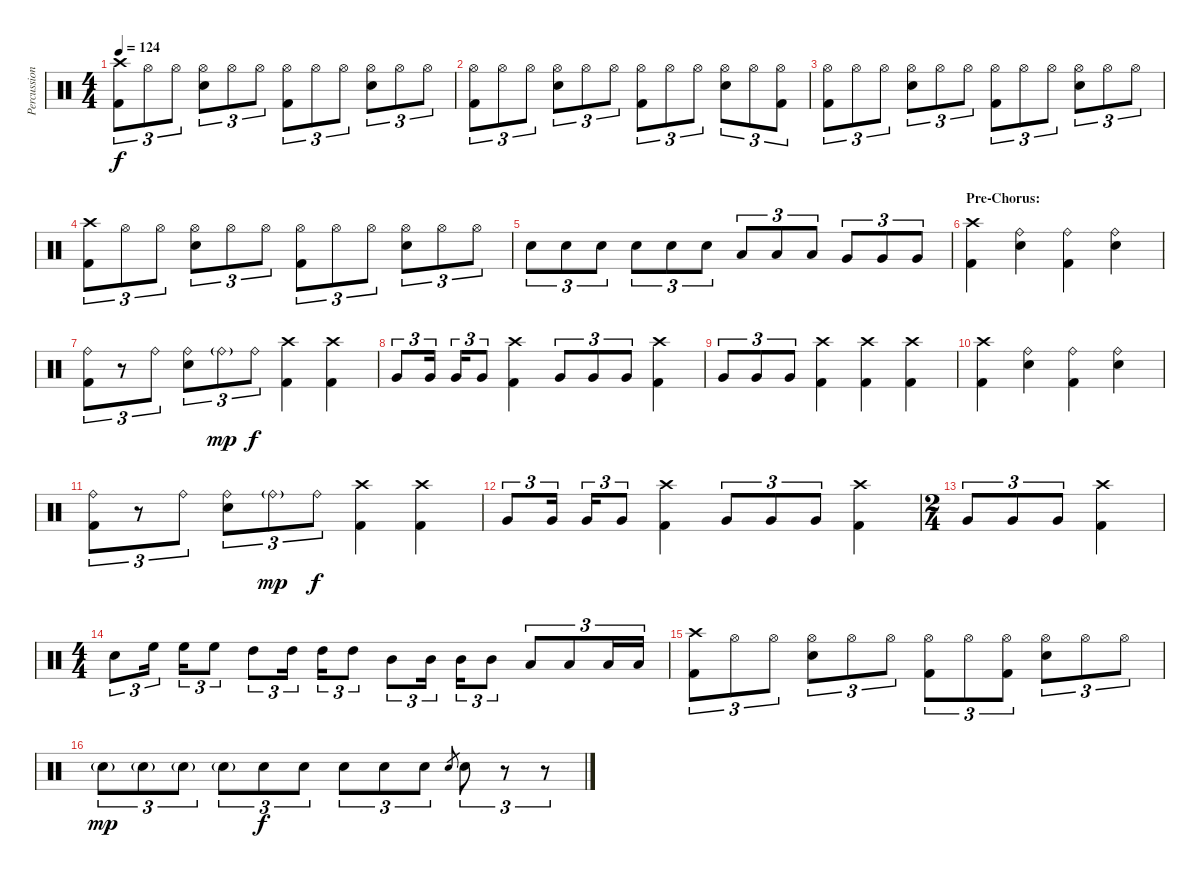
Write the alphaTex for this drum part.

\track ("Percussion" "Percussion") {instrument percussion}
\staff {score}
\articulation defaults
\ts (4 4)
\tempo 124
\clef neutral
\ks c
("Crash high (hit)" "Kick (hit) 2").8{tu (3 2) dy f} "Hi-Hat (open)".8{tu (3 2)} "Hi-Hat (open)".8{tu (3 2)} ("Hi-Hat (open)" "Snare (hit) 2").8{tu (3 2)} "Hi-Hat (open)".8{tu (3 2)} "Hi-Hat (open)".8{tu (3 2)} ("Hi-Hat (open)" "Kick (hit) 2").8{tu (3 2)} "Hi-Hat (open)".8{tu (3 2)} "Hi-Hat (open)".8{tu (3 2)} ("Hi-Hat (open)" "Snare (hit) 2").8{tu (3 2)} "Hi-Hat (open)".8{tu (3 2)} "Hi-Hat (open)".8{tu (3 2)} |
("Hi-Hat (open)" "Kick (hit) 2").8{tu (3 2)} "Hi-Hat (open)".8{tu (3 2)} "Hi-Hat (open)".8{tu (3 2)} ("Hi-Hat (open)" "Snare (hit) 2").8{tu (3 2)} "Hi-Hat (open)".8{tu (3 2)} "Hi-Hat (open)".8{tu (3 2)} ("Hi-Hat (open)" "Kick (hit) 2").8{tu (3 2)} "Hi-Hat (open)".8{tu (3 2)} "Hi-Hat (open)".8{tu (3 2)} ("Hi-Hat (open)" "Snare (hit) 2").8{tu (3 2)} "Hi-Hat (open)".8{tu (3 2)} ("Hi-Hat (open)" "Kick (hit) 2").8{tu (3 2)} |
("Hi-Hat (open)" "Kick (hit) 2").8{tu (3 2)} "Hi-Hat (open)".8{tu (3 2)} "Hi-Hat (open)".8{tu (3 2)} ("Hi-Hat (open)" "Snare (hit) 2").8{tu (3 2)} "Hi-Hat (open)".8{tu (3 2)} "Hi-Hat (open)".8{tu (3 2)} ("Hi-Hat (open)" "Kick (hit) 2").8{tu (3 2)} "Hi-Hat (open)".8{tu (3 2)} "Hi-Hat (open)".8{tu (3 2)} ("Hi-Hat (open)" "Snare (hit) 2").8{tu (3 2)} "Hi-Hat (open)".8{tu (3 2)} "Hi-Hat (open)".8{tu (3 2)} |
("Crash high (hit)" "Kick (hit) 2").8{tu (3 2)} "Hi-Hat (open)".8{tu (3 2)} "Hi-Hat (open)".8{tu (3 2)} ("Hi-Hat (open)" "Snare (hit) 2").8{tu (3 2)} "Hi-Hat (open)".8{tu (3 2)} "Hi-Hat (open)".8{tu (3 2)} ("Hi-Hat (open)" "Kick (hit) 2").8{tu (3 2)} "Hi-Hat (open)".8{tu (3 2)} "Hi-Hat (open)".8{tu (3 2)} ("Hi-Hat (open)" "Snare (hit) 2").8{tu (3 2)} "Hi-Hat (open)".8{tu (3 2)} "Hi-Hat (open)".8{tu (3 2)} |
"Snare (hit) 2".8{tu (3 2)} "Snare (hit) 2".8{tu (3 2)} "Snare (hit) 2".8{tu (3 2)} "Snare (hit) 2".8{tu (3 2)} "Snare (hit) 2".8{tu (3 2)} "Snare (hit) 2".8{tu (3 2)} "Low Tom (hit)".8{tu (3 2)} "Low Tom (hit)".8{tu (3 2)} "Low Tom (hit)".8{tu (3 2)} "Very Low Tom (hit)".8{tu (3 2)} "Very Low Tom (hit)".8{tu (3 2)} "Very Low Tom (hit)".8{tu (3 2)} |
\section ("" "Pre-Chorus:")
("Crash high (hit)" "Kick (hit) 2").4 ("Ride (bell)" "Snare (hit) 2").4 ("Ride (bell)" "Kick (hit) 2").4 ("Ride (bell)" "Snare (hit) 2").4 |
("Ride (bell)" "Kick (hit) 2").8{tu (3 2)} r.8{tu (3 2)} "Ride (bell)".8{tu (3 2)} ("Ride (bell)" "Snare (hit) 2").8{tu (3 2)} "Ride (bell)"{g}.8{tu (3 2) dy mp} "Ride (bell)".8{tu (3 2) dy f} ("Crash high (hit)" "Kick (hit) 2").4 ("Crash high (hit)" "Kick (hit) 2").4 |
"Very Low Tom (hit)".8{tu (3 2)} "Very Low Tom (hit)".16{tu (3 2)} "Very Low Tom (hit)".16{tu (3 2)} "Very Low Tom (hit)".8{tu (3 2)} ("Crash high (hit)" "Kick (hit) 2").4 "Very Low Tom (hit)".8{tu (3 2)} "Very Low Tom (hit)".8{tu (3 2)} "Very Low Tom (hit)".8{tu (3 2)} ("Crash high (hit)" "Kick (hit) 2").4 |
"Very Low Tom (hit)".8{tu (3 2)} "Very Low Tom (hit)".8{tu (3 2)} "Very Low Tom (hit)".8{tu (3 2)} ("Crash high (hit)" "Kick (hit) 2").4 ("Crash high (hit)" "Kick (hit) 2").4 ("Crash high (hit)" "Kick (hit) 2").4 |
("Crash high (hit)" "Kick (hit) 2").4 ("Ride (bell)" "Snare (hit) 2").4 ("Ride (bell)" "Kick (hit) 2").4 ("Ride (bell)" "Snare (hit) 2").4 |
("Ride (bell)" "Kick (hit) 2").8{tu (3 2)} r.8{tu (3 2)} "Ride (bell)".8{tu (3 2)} ("Ride (bell)" "Snare (hit) 2").8{tu (3 2)} "Ride (bell)"{g}.8{tu (3 2) dy mp} "Ride (bell)".8{tu (3 2) dy f} ("Crash high (hit)" "Kick (hit) 2").4 ("Crash high (hit)" "Kick (hit) 2").4 |
"Very Low Tom (hit)".8{tu (3 2)} "Very Low Tom (hit)".16{tu (3 2)} "Very Low Tom (hit)".16{tu (3 2)} "Very Low Tom (hit)".8{tu (3 2)} ("Crash high (hit)" "Kick (hit) 2").4 "Very Low Tom (hit)".8{tu (3 2)} "Very Low Tom (hit)".8{tu (3 2)} "Very Low Tom (hit)".8{tu (3 2)} ("Crash high (hit)" "Kick (hit) 2").4 |
\ts (2 4)
"Very Low Tom (hit)".8{tu (3 2)} "Very Low Tom (hit)".8{tu (3 2)} "Very Low Tom (hit)".8{tu (3 2)} ("Crash high (hit)" "Kick (hit) 2").4 |
\ts (4 4)
"Snare (hit) 2".8{tu (3 2)} "High Floor Tom (hit)".16{tu (3 2)} "High Floor Tom (hit)".16{tu (3 2)} "High Floor Tom (hit)".8{tu (3 2)} "High Tom (hit)".8{tu (3 2)} "High Tom (hit)".16{tu (3 2)} "High Tom (hit)".16{tu (3 2)} "High Tom (hit)".8{tu (3 2)} "Mid Tom (hit)".8{tu (3 2)} "Mid Tom (hit)".16{tu (3 2)} "Mid Tom (hit)".16{tu (3 2)} "Mid Tom (hit)".8{tu (3 2)} "Low Tom (hit)".8{tu (3 2)} "Low Tom (hit)".8{tu (3 2)} "Low Tom (hit)".16{tu (3 2)} "Low Tom (hit)".16{tu (3 2)} |
("Crash high (hit)" "Kick (hit) 2").8{tu (3 2)} "Hi-Hat (open)".8{tu (3 2)} "Hi-Hat (open)".8{tu (3 2)} ("Hi-Hat (open)" "Snare (hit) 2").8{tu (3 2)} "Hi-Hat (open)".8{tu (3 2)} "Hi-Hat (open)".8{tu (3 2)} ("Hi-Hat (open)" "Kick (hit) 2").8{tu (3 2)} "Hi-Hat (open)".8{tu (3 2)} ("Hi-Hat (open)" "Kick (hit) 2").8{tu (3 2)} ("Hi-Hat (open)" "Snare (hit) 2").8{tu (3 2)} "Hi-Hat (open)".8{tu (3 2)} "Hi-Hat (open)".8{tu (3 2)} |
"Snare (hit) 2"{g}.8{tu (3 2) dy mp} "Snare (hit) 2"{g}.8{tu (3 2)} "Snare (hit) 2"{g}.8{tu (3 2)} "Snare (hit) 2"{g}.8{tu (3 2)} "Snare (hit) 2".8{tu (3 2) dy f} "Snare (hit) 2".8{tu (3 2)} "Snare (hit) 2".8{tu (3 2)} "Snare (hit) 2".8{tu (3 2)} "Snare (hit) 2".8{tu (3 2)} "Snare (hit) 2".8{gr} "Snare (hit) 2".8{tu (3 2)} r.8{tu (3 2)} r.8{tu (3 2)}
